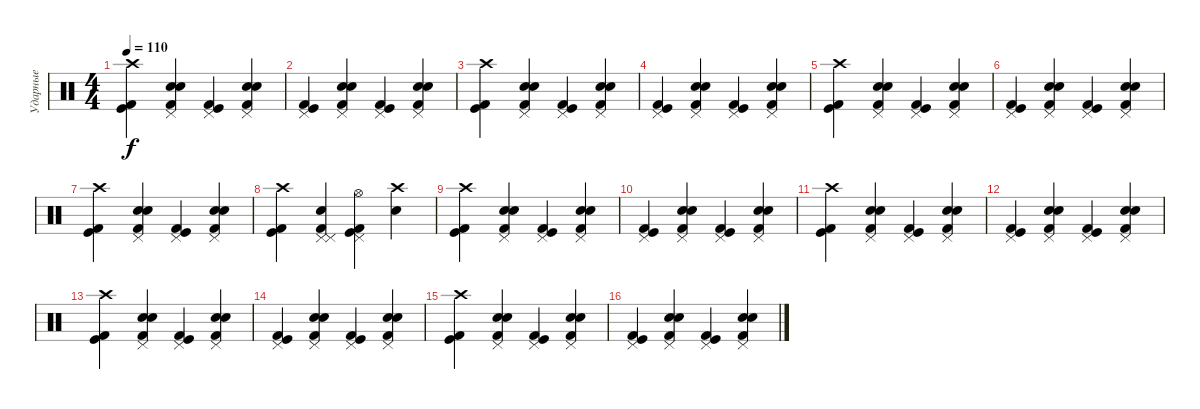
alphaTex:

\track ("Ударные" "Ударные") {instrument percussion}
\staff {score}
\articulation defaults
\ts (4 4)
\tempo 110
\clef neutral
\ks c
("Crash high (hit)" "Kick (hit)" "Kick (hit) 2").4{dy f} ("Electric Snare (hit)" "Snare (hit) 2" "Pedal Hi-Hat (hit)" "Kick (hit) 2").4 ("Pedal Hi-Hat (hit)" "Kick (hit)" "Kick (hit) 2").4 ("Electric Snare (hit)" "Snare (hit) 2" "Pedal Hi-Hat (hit)" "Kick (hit) 2").4 |
("Pedal Hi-Hat (hit)" "Kick (hit)" "Kick (hit) 2").4 ("Electric Snare (hit)" "Snare (hit) 2" "Pedal Hi-Hat (hit)" "Kick (hit) 2").4 ("Pedal Hi-Hat (hit)" "Kick (hit)" "Kick (hit) 2").4 ("Electric Snare (hit)" "Snare (hit) 2" "Pedal Hi-Hat (hit)" "Kick (hit) 2").4 |
("Crash high (hit)" "Kick (hit)" "Kick (hit) 2").4 ("Electric Snare (hit)" "Snare (hit) 2" "Pedal Hi-Hat (hit)" "Kick (hit) 2").4 ("Pedal Hi-Hat (hit)" "Kick (hit)" "Kick (hit) 2").4 ("Electric Snare (hit)" "Snare (hit) 2" "Pedal Hi-Hat (hit)" "Kick (hit) 2").4 |
("Pedal Hi-Hat (hit)" "Kick (hit)" "Kick (hit) 2").4 ("Electric Snare (hit)" "Snare (hit) 2" "Pedal Hi-Hat (hit)" "Kick (hit) 2").4 ("Pedal Hi-Hat (hit)" "Kick (hit)" "Kick (hit) 2").4 ("Electric Snare (hit)" "Snare (hit) 2" "Pedal Hi-Hat (hit)" "Kick (hit) 2").4 |
("Crash high (hit)" "Kick (hit)" "Kick (hit) 2").4 ("Electric Snare (hit)" "Snare (hit) 2" "Pedal Hi-Hat (hit)" "Kick (hit) 2").4 ("Pedal Hi-Hat (hit)" "Kick (hit)" "Kick (hit) 2").4 ("Electric Snare (hit)" "Snare (hit) 2" "Pedal Hi-Hat (hit)" "Kick (hit) 2").4 |
("Pedal Hi-Hat (hit)" "Kick (hit)" "Kick (hit) 2").4 ("Electric Snare (hit)" "Snare (hit) 2" "Pedal Hi-Hat (hit)" "Kick (hit) 2").4 ("Pedal Hi-Hat (hit)" "Kick (hit)" "Kick (hit) 2").4 ("Electric Snare (hit)" "Snare (hit) 2" "Pedal Hi-Hat (hit)" "Kick (hit) 2").4 |
("Crash high (hit)" "Kick (hit)" "Kick (hit) 2").4 ("Electric Snare (hit)" "Snare (hit) 2" "Pedal Hi-Hat (hit)" "Kick (hit) 2").4 ("Pedal Hi-Hat (hit)" "Kick (hit)" "Kick (hit) 2").4 ("Electric Snare (hit)" "Snare (hit) 2" "Pedal Hi-Hat (hit)" "Kick (hit) 2").4 |
("Crash high (hit)" "Kick (hit)" "Kick (hit) 2").4 ("Pedal Hi-Hat (hit)" "Pedal Hi-Hat (hit)" "Kick (hit) 2" "Electric Snare (hit)").4 ("Pedal Hi-Hat (hit)" "Kick (hit)" "Kick (hit) 2" "Hi-Hat (open)").4 ("Crash high (hit)" "Electric Snare (hit)").4 |
("Crash high (hit)" "Kick (hit)" "Kick (hit) 2").4 ("Electric Snare (hit)" "Snare (hit) 2" "Pedal Hi-Hat (hit)" "Kick (hit) 2").4 ("Pedal Hi-Hat (hit)" "Kick (hit)" "Kick (hit) 2").4 ("Electric Snare (hit)" "Snare (hit) 2" "Pedal Hi-Hat (hit)" "Kick (hit) 2").4 |
("Pedal Hi-Hat (hit)" "Kick (hit)" "Kick (hit) 2").4 ("Electric Snare (hit)" "Snare (hit) 2" "Pedal Hi-Hat (hit)" "Kick (hit) 2").4 ("Pedal Hi-Hat (hit)" "Kick (hit)" "Kick (hit) 2").4 ("Electric Snare (hit)" "Snare (hit) 2" "Pedal Hi-Hat (hit)" "Kick (hit) 2").4 |
("Crash high (hit)" "Kick (hit)" "Kick (hit) 2").4 ("Electric Snare (hit)" "Snare (hit) 2" "Pedal Hi-Hat (hit)" "Kick (hit) 2").4 ("Pedal Hi-Hat (hit)" "Kick (hit)" "Kick (hit) 2").4 ("Electric Snare (hit)" "Snare (hit) 2" "Pedal Hi-Hat (hit)" "Kick (hit) 2").4 |
("Pedal Hi-Hat (hit)" "Kick (hit)" "Kick (hit) 2").4 ("Electric Snare (hit)" "Snare (hit) 2" "Pedal Hi-Hat (hit)" "Kick (hit) 2").4 ("Pedal Hi-Hat (hit)" "Kick (hit)" "Kick (hit) 2").4 ("Electric Snare (hit)" "Snare (hit) 2" "Pedal Hi-Hat (hit)" "Kick (hit) 2").4 |
("Crash high (hit)" "Kick (hit)" "Kick (hit) 2").4 ("Electric Snare (hit)" "Snare (hit) 2" "Pedal Hi-Hat (hit)" "Kick (hit) 2").4 ("Pedal Hi-Hat (hit)" "Kick (hit)" "Kick (hit) 2").4 ("Electric Snare (hit)" "Snare (hit) 2" "Pedal Hi-Hat (hit)" "Kick (hit) 2").4 |
("Pedal Hi-Hat (hit)" "Kick (hit)" "Kick (hit) 2").4 ("Electric Snare (hit)" "Snare (hit) 2" "Pedal Hi-Hat (hit)" "Kick (hit) 2").4 ("Pedal Hi-Hat (hit)" "Kick (hit)" "Kick (hit) 2").4 ("Electric Snare (hit)" "Snare (hit) 2" "Pedal Hi-Hat (hit)" "Kick (hit) 2").4 |
("Crash high (hit)" "Kick (hit)" "Kick (hit) 2").4 ("Electric Snare (hit)" "Snare (hit) 2" "Pedal Hi-Hat (hit)" "Kick (hit) 2").4 ("Pedal Hi-Hat (hit)" "Kick (hit)" "Kick (hit) 2").4 ("Electric Snare (hit)" "Snare (hit) 2" "Pedal Hi-Hat (hit)" "Kick (hit) 2").4 |
("Pedal Hi-Hat (hit)" "Kick (hit)" "Kick (hit) 2").4 ("Electric Snare (hit)" "Snare (hit) 2" "Pedal Hi-Hat (hit)" "Kick (hit) 2").4 ("Pedal Hi-Hat (hit)" "Kick (hit)" "Kick (hit) 2").4 ("Electric Snare (hit)" "Snare (hit) 2" "Pedal Hi-Hat (hit)" "Kick (hit) 2").4
